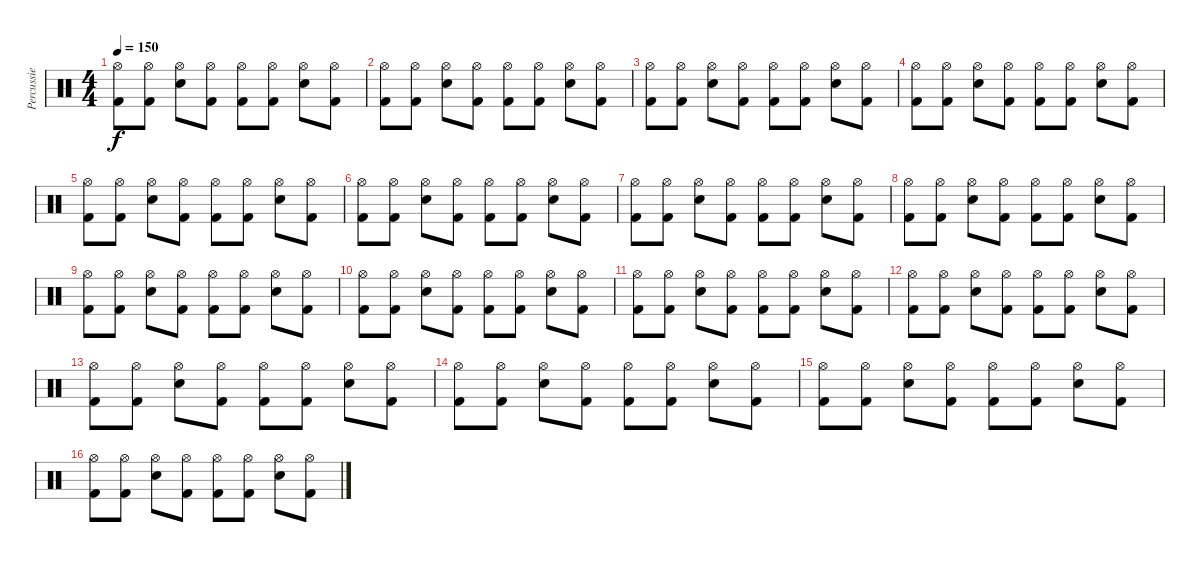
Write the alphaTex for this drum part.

\track ("Percussie" "Percussie") {instrument percussion}
\staff {score}
\articulation defaults
\ts (4 4)
\tempo 150
\clef neutral
\ks c
("Hi-Hat (open)" "Kick (hit) 2").8{dy f} ("Hi-Hat (open)" "Kick (hit) 2").8 ("Hi-Hat (open)" "Snare (hit) 2").8 ("Hi-Hat (open)" "Kick (hit) 2").8 ("Hi-Hat (open)" "Kick (hit) 2").8 ("Hi-Hat (open)" "Kick (hit) 2").8 ("Hi-Hat (open)" "Snare (hit) 2").8 ("Hi-Hat (open)" "Kick (hit) 2").8 |
("Hi-Hat (open)" "Kick (hit) 2").8 ("Hi-Hat (open)" "Kick (hit) 2").8 ("Hi-Hat (open)" "Snare (hit) 2").8 ("Hi-Hat (open)" "Kick (hit) 2").8 ("Hi-Hat (open)" "Kick (hit) 2").8 ("Hi-Hat (open)" "Kick (hit) 2").8 ("Hi-Hat (open)" "Snare (hit) 2").8 ("Hi-Hat (open)" "Kick (hit) 2").8 |
("Hi-Hat (open)" "Kick (hit) 2").8 ("Hi-Hat (open)" "Kick (hit) 2").8 ("Hi-Hat (open)" "Snare (hit) 2").8 ("Hi-Hat (open)" "Kick (hit) 2").8 ("Hi-Hat (open)" "Kick (hit) 2").8 ("Hi-Hat (open)" "Kick (hit) 2").8 ("Hi-Hat (open)" "Snare (hit) 2").8 ("Hi-Hat (open)" "Kick (hit) 2").8 |
("Hi-Hat (open)" "Kick (hit) 2").8 ("Hi-Hat (open)" "Kick (hit) 2").8 ("Hi-Hat (open)" "Snare (hit) 2").8 ("Hi-Hat (open)" "Kick (hit) 2").8 ("Hi-Hat (open)" "Kick (hit) 2").8 ("Hi-Hat (open)" "Kick (hit) 2").8 ("Hi-Hat (open)" "Snare (hit) 2").8 ("Hi-Hat (open)" "Kick (hit) 2").8 |
("Hi-Hat (open)" "Kick (hit) 2").8 ("Hi-Hat (open)" "Kick (hit) 2").8 ("Hi-Hat (open)" "Snare (hit) 2").8 ("Hi-Hat (open)" "Kick (hit) 2").8 ("Hi-Hat (open)" "Kick (hit) 2").8 ("Hi-Hat (open)" "Kick (hit) 2").8 ("Hi-Hat (open)" "Snare (hit) 2").8 ("Hi-Hat (open)" "Kick (hit) 2").8 |
("Hi-Hat (open)" "Kick (hit) 2").8 ("Hi-Hat (open)" "Kick (hit) 2").8 ("Hi-Hat (open)" "Snare (hit) 2").8 ("Hi-Hat (open)" "Kick (hit) 2").8 ("Hi-Hat (open)" "Kick (hit) 2").8 ("Hi-Hat (open)" "Kick (hit) 2").8 ("Hi-Hat (open)" "Snare (hit) 2").8 ("Hi-Hat (open)" "Kick (hit) 2").8 |
("Hi-Hat (open)" "Kick (hit) 2").8 ("Hi-Hat (open)" "Kick (hit) 2").8 ("Hi-Hat (open)" "Snare (hit) 2").8 ("Hi-Hat (open)" "Kick (hit) 2").8 ("Hi-Hat (open)" "Kick (hit) 2").8 ("Hi-Hat (open)" "Kick (hit) 2").8 ("Hi-Hat (open)" "Snare (hit) 2").8 ("Hi-Hat (open)" "Kick (hit) 2").8 |
("Hi-Hat (open)" "Kick (hit) 2").8 ("Hi-Hat (open)" "Kick (hit) 2").8 ("Hi-Hat (open)" "Snare (hit) 2").8 ("Hi-Hat (open)" "Kick (hit) 2").8 ("Hi-Hat (open)" "Kick (hit) 2").8 ("Hi-Hat (open)" "Kick (hit) 2").8 ("Hi-Hat (open)" "Snare (hit) 2").8 ("Hi-Hat (open)" "Kick (hit) 2").8 |
("Hi-Hat (open)" "Kick (hit) 2").8 ("Hi-Hat (open)" "Kick (hit) 2").8 ("Hi-Hat (open)" "Snare (hit) 2").8 ("Hi-Hat (open)" "Kick (hit) 2").8 ("Hi-Hat (open)" "Kick (hit) 2").8 ("Hi-Hat (open)" "Kick (hit) 2").8 ("Hi-Hat (open)" "Snare (hit) 2").8 ("Hi-Hat (open)" "Kick (hit) 2").8 |
("Hi-Hat (open)" "Kick (hit) 2").8 ("Hi-Hat (open)" "Kick (hit) 2").8 ("Hi-Hat (open)" "Snare (hit) 2").8 ("Hi-Hat (open)" "Kick (hit) 2").8 ("Hi-Hat (open)" "Kick (hit) 2").8 ("Hi-Hat (open)" "Kick (hit) 2").8 ("Hi-Hat (open)" "Snare (hit) 2").8 ("Hi-Hat (open)" "Kick (hit) 2").8 |
("Hi-Hat (open)" "Kick (hit) 2").8 ("Hi-Hat (open)" "Kick (hit) 2").8 ("Hi-Hat (open)" "Snare (hit) 2").8 ("Hi-Hat (open)" "Kick (hit) 2").8 ("Hi-Hat (open)" "Kick (hit) 2").8 ("Hi-Hat (open)" "Kick (hit) 2").8 ("Hi-Hat (open)" "Snare (hit) 2").8 ("Hi-Hat (open)" "Kick (hit) 2").8 |
("Hi-Hat (open)" "Kick (hit) 2").8 ("Hi-Hat (open)" "Kick (hit) 2").8 ("Hi-Hat (open)" "Snare (hit) 2").8 ("Hi-Hat (open)" "Kick (hit) 2").8 ("Hi-Hat (open)" "Kick (hit) 2").8 ("Hi-Hat (open)" "Kick (hit) 2").8 ("Hi-Hat (open)" "Snare (hit) 2").8 ("Hi-Hat (open)" "Kick (hit) 2").8 |
("Hi-Hat (open)" "Kick (hit) 2").8 ("Hi-Hat (open)" "Kick (hit) 2").8 ("Hi-Hat (open)" "Snare (hit) 2").8 ("Hi-Hat (open)" "Kick (hit) 2").8 ("Hi-Hat (open)" "Kick (hit) 2").8 ("Hi-Hat (open)" "Kick (hit) 2").8 ("Hi-Hat (open)" "Snare (hit) 2").8 ("Hi-Hat (open)" "Kick (hit) 2").8 |
("Hi-Hat (open)" "Kick (hit) 2").8 ("Hi-Hat (open)" "Kick (hit) 2").8 ("Hi-Hat (open)" "Snare (hit) 2").8 ("Hi-Hat (open)" "Kick (hit) 2").8 ("Hi-Hat (open)" "Kick (hit) 2").8 ("Hi-Hat (open)" "Kick (hit) 2").8 ("Hi-Hat (open)" "Snare (hit) 2").8 ("Hi-Hat (open)" "Kick (hit) 2").8 |
("Hi-Hat (open)" "Kick (hit) 2").8 ("Hi-Hat (open)" "Kick (hit) 2").8 ("Hi-Hat (open)" "Snare (hit) 2").8 ("Hi-Hat (open)" "Kick (hit) 2").8 ("Hi-Hat (open)" "Kick (hit) 2").8 ("Hi-Hat (open)" "Kick (hit) 2").8 ("Hi-Hat (open)" "Snare (hit) 2").8 ("Hi-Hat (open)" "Kick (hit) 2").8 |
("Hi-Hat (open)" "Kick (hit) 2").8 ("Hi-Hat (open)" "Kick (hit) 2").8 ("Hi-Hat (open)" "Snare (hit) 2").8 ("Hi-Hat (open)" "Kick (hit) 2").8 ("Hi-Hat (open)" "Kick (hit) 2").8 ("Hi-Hat (open)" "Kick (hit) 2").8 ("Hi-Hat (open)" "Snare (hit) 2").8 ("Hi-Hat (open)" "Kick (hit) 2").8
